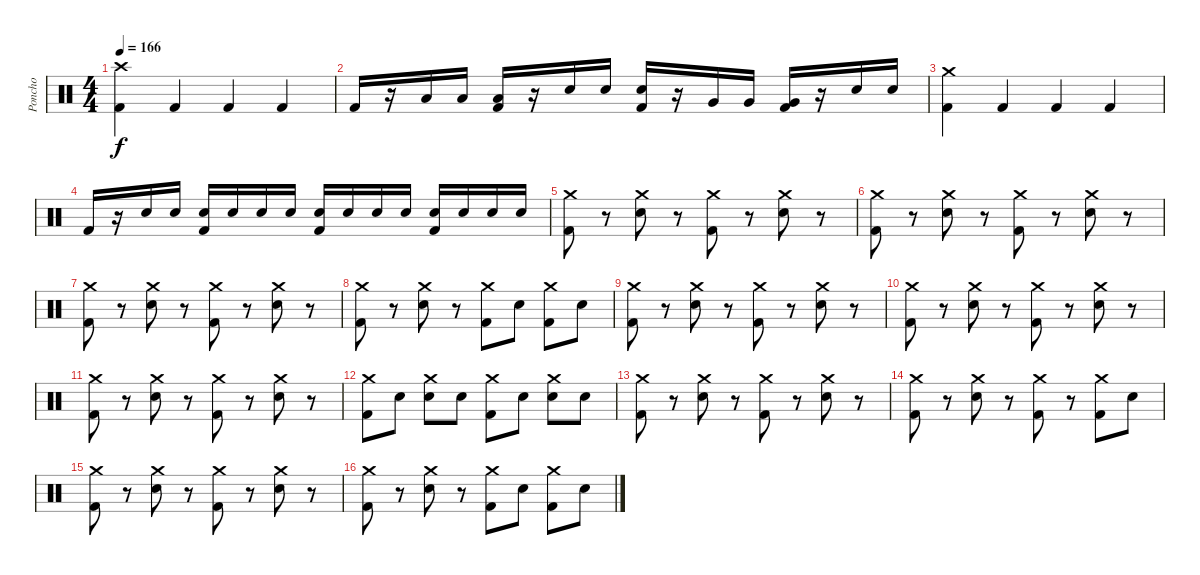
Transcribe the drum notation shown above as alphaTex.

\track ("Poncho" "Poncho") {instrument percussion}
\staff {score}
\articulation defaults
\ts (4 4)
\tempo 166
\clef neutral
\ks c
("Crash high (hit)" "Kick (hit) 2").4{dy f} "Kick (hit) 2".4 "Kick (hit) 2".4 "Kick (hit) 2".4 |
"Kick (hit) 2".16 r.16 "Low Tom (hit)".16 "Low Tom (hit)".16 ("Low Tom (hit)" "Kick (hit) 2").16 r.16 "Electric Snare (hit)".16 "Electric Snare (hit)".16 ("Electric Snare (hit)" "Kick (hit) 2").16 r.16 "Very Low Tom (hit)".16 "Very Low Tom (hit)".16 ("Very Low Tom (hit)" "Kick (hit) 2").16 r.16 "Electric Snare (hit)".16 "Electric Snare (hit)".16 |
("Crash medium (hit)" "Kick (hit) 2").4 "Kick (hit) 2".4 "Kick (hit) 2".4 "Kick (hit) 2".4 |
"Kick (hit) 2".16 r.16 "Electric Snare (hit)".16 "Electric Snare (hit)".16 ("Electric Snare (hit)" "Kick (hit) 2").16 "Electric Snare (hit)".16 "Electric Snare (hit)".16 "Electric Snare (hit)".16 ("Electric Snare (hit)" "Kick (hit) 2").16 "Electric Snare (hit)".16 "Electric Snare (hit)".16 "Electric Snare (hit)".16 ("Electric Snare (hit)" "Kick (hit) 2").16 "Electric Snare (hit)".16 "Electric Snare (hit)".16 "Electric Snare (hit)".16 |
("Crash medium (hit)" "Kick (hit) 2").8 r.8 ("Crash medium (hit)" "Electric Snare (hit)").8 r.8 ("Crash medium (hit)" "Kick (hit) 2").8 r.8 ("Crash medium (hit)" "Electric Snare (hit)").8 r.8 |
("Crash medium (hit)" "Kick (hit) 2").8 r.8 ("Crash medium (hit)" "Electric Snare (hit)").8 r.8 ("Crash medium (hit)" "Kick (hit) 2").8 r.8 ("Crash medium (hit)" "Electric Snare (hit)").8 r.8 |
("Crash medium (hit)" "Kick (hit) 2").8 r.8 ("Crash medium (hit)" "Electric Snare (hit)").8 r.8 ("Crash medium (hit)" "Kick (hit) 2").8 r.8 ("Crash medium (hit)" "Electric Snare (hit)").8 r.8 |
("Crash medium (hit)" "Kick (hit) 2").8 r.8 ("Crash medium (hit)" "Electric Snare (hit)").8 r.8 ("Crash medium (hit)" "Kick (hit) 2").8 "Electric Snare (hit)".8 ("Crash medium (hit)" "Kick (hit) 2").8 "Electric Snare (hit)".8 |
("Crash medium (hit)" "Kick (hit) 2").8 r.8 ("Crash medium (hit)" "Electric Snare (hit)").8 r.8 ("Crash medium (hit)" "Kick (hit) 2").8 r.8 ("Crash medium (hit)" "Electric Snare (hit)").8 r.8 |
("Crash medium (hit)" "Kick (hit) 2").8 r.8 ("Crash medium (hit)" "Electric Snare (hit)").8 r.8 ("Crash medium (hit)" "Kick (hit) 2").8 r.8 ("Crash medium (hit)" "Electric Snare (hit)").8 r.8 |
("Crash medium (hit)" "Kick (hit) 2").8 r.8 ("Crash medium (hit)" "Electric Snare (hit)").8 r.8 ("Crash medium (hit)" "Kick (hit) 2").8 r.8 ("Crash medium (hit)" "Electric Snare (hit)").8 r.8 |
("Crash medium (hit)" "Kick (hit) 2").8 "Electric Snare (hit)".8 ("Crash medium (hit)" "Electric Snare (hit)").8 "Electric Snare (hit)".8 ("Crash medium (hit)" "Kick (hit) 2").8 "Electric Snare (hit)".8 ("Crash medium (hit)" "Electric Snare (hit)").8 "Electric Snare (hit)".8 |
("Crash medium (hit)" "Kick (hit) 2").8 r.8 ("Crash medium (hit)" "Electric Snare (hit)").8 r.8 ("Crash medium (hit)" "Kick (hit) 2").8 r.8 ("Crash medium (hit)" "Electric Snare (hit)").8 r.8 |
("Crash medium (hit)" "Kick (hit) 2").8 r.8 ("Crash medium (hit)" "Electric Snare (hit)").8 r.8 ("Crash medium (hit)" "Kick (hit) 2").8 r.8 ("Crash medium (hit)" "Kick (hit) 2").8 "Electric Snare (hit)".8 |
("Crash medium (hit)" "Kick (hit) 2").8 r.8 ("Crash medium (hit)" "Electric Snare (hit)").8 r.8 ("Crash medium (hit)" "Kick (hit) 2").8 r.8 ("Crash medium (hit)" "Electric Snare (hit)").8 r.8 |
("Crash medium (hit)" "Kick (hit) 2").8 r.8 ("Crash medium (hit)" "Electric Snare (hit)").8 r.8 ("Crash medium (hit)" "Kick (hit) 2").8 "Electric Snare (hit)".8 ("Crash medium (hit)" "Kick (hit) 2").8 "Electric Snare (hit)".8
